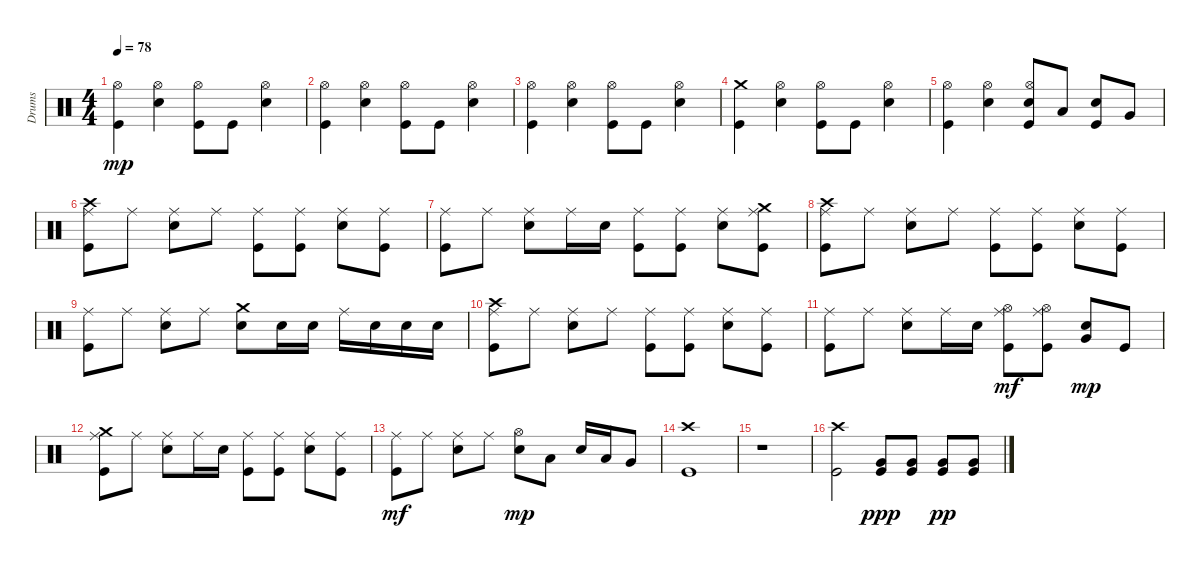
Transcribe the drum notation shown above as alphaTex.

\track ("Drums" "Drums") {instrument percussion}
\staff {score}
\articulation defaults
\ts (4 4)
\tempo 78
\clef neutral
\ks c
("Kick (hit)" "Hi-Hat (open)").4{dy mp balance 7} ("Snare (hit) 2" "Hi-Hat (open)").4{balance 7} ("Kick (hit)" "Hi-Hat (open)").8{balance 7} "Kick (hit)".8{balance 8} ("Snare (hit) 2" "Hi-Hat (open)").4{balance 7} |
("Kick (hit)" "Hi-Hat (open)").4{balance 7} ("Snare (hit) 2" "Hi-Hat (open)").4{balance 7} ("Kick (hit)" "Hi-Hat (open)").8{balance 7} "Kick (hit)".8{balance 8} ("Snare (hit) 2" "Hi-Hat (open)").4{balance 7} |
("Kick (hit)" "Hi-Hat (open)").4{balance 7} ("Snare (hit) 2" "Hi-Hat (open)").4{balance 7} ("Kick (hit)" "Hi-Hat (open)").8{balance 7} "Kick (hit)".8{balance 8} ("Snare (hit) 2" "Hi-Hat (open)").4{balance 7} |
("Kick (hit)" "Crash medium (hit)").4{volume 14 balance 8} ("Snare (hit) 2" "Hi-Hat (open)").4{volume 16 balance 8} ("Kick (hit)" "Hi-Hat (open)").8{balance 7} "Kick (hit)".8{balance 8} ("Snare (hit) 2" "Hi-Hat (open)").4{balance 8} |
("Kick (hit)" "Hi-Hat (open)").4{balance 7} ("Snare (hit) 2" "Hi-Hat (open)").4{balance 7} ("Kick (hit)" "Snare (hit) 2" "Hi-Hat (open)").8{balance 7} "Low Tom (hit)".8{balance 8} ("Kick (hit)" "Snare (hit) 2").8{balance 8} "Very Low Tom (hit)".8 |
("Kick (hit)" "Crash high (hit)" "Ride (middle)").8{volume 16 balance 7} "Ride (middle)".8 ("Snare (hit) 2" "Ride (middle)").8{balance 7} "Ride (middle)".8 ("Kick (hit)" "Ride (middle)").8{balance 7} ("Kick (hit)" "Ride (middle)").8{balance 7} ("Snare (hit) 2" "Ride (middle)").8{balance 7} ("Kick (hit)" "Ride (middle)").8{balance 7} |
("Kick (hit)" "Ride (middle)").8{balance 7} "Ride (middle)".8 ("Snare (hit) 2" "Ride (middle)").8{balance 7} "Ride (middle)".16 "Snare (hit) 2".16{balance 8} ("Kick (hit)" "Ride (middle)").8{balance 7} ("Kick (hit)" "Ride (middle)").8{balance 7} ("Snare (hit) 2" "Ride (middle)").8{balance 7} ("Kick (hit)" "Crash medium (hit)" "Ride (middle)").8{volume 16 balance 7} |
("Kick (hit)" "Crash high (hit)" "Ride (middle)").8{volume 16 balance 7} "Ride (middle)".8 ("Snare (hit) 2" "Ride (middle)").8{balance 7} "Ride (middle)".8 ("Kick (hit)" "Ride (middle)").8{balance 7} ("Kick (hit)" "Ride (middle)").8{balance 7} ("Snare (hit) 2" "Ride (middle)").8{balance 7} ("Kick (hit)" "Ride (middle)").8{balance 7} |
("Kick (hit)" "Ride (middle)").8{balance 7} "Ride (middle)".8 ("Snare (hit) 2" "Ride (middle)").8{balance 7} "Ride (middle)".8 ("Snare (hit) 2" "Crash medium (hit)").8{volume 14 balance 8} "Snare (hit) 2".16{volume 16 balance 8} "Snare (hit) 2".16 "Ride (middle)".16{balance 7} "Snare (hit) 2".16{balance 8} "Snare (hit) 2".16 "Snare (hit) 2".16 |
("Kick (hit)" "Crash high (hit)" "Ride (middle)").8{volume 16 balance 7} "Ride (middle)".8 ("Snare (hit) 2" "Ride (middle)").8{balance 7} "Ride (middle)".8 ("Kick (hit)" "Ride (middle)").8{balance 7} ("Kick (hit)" "Ride (middle)").8{balance 7} ("Snare (hit) 2" "Ride (middle)").8{balance 7} ("Kick (hit)" "Ride (middle)").8{balance 7} |
("Kick (hit)" "Ride (middle)").8{balance 7} "Ride (middle)".8 ("Snare (hit) 2" "Ride (middle)").8{balance 7} "Ride (middle)".16 "Snare (hit) 2".16{balance 8} ("Kick (hit)" "Hi-Hat (open)" "Ride (middle)").8{dy mf balance 7} ("Kick (hit)" "Hi-Hat (open)" "Ride (middle)").8{balance 7} ("Snare (hit) 2" "Very Low Tom (hit)").8{dy mp balance 8} "Kick (hit)".8{balance 8} |
("Kick (hit)" "Crash medium (hit)" "Ride (middle)").8{volume 16 balance 7} "Ride (middle)".8 ("Snare (hit) 2" "Ride (middle)").8{balance 7} "Ride (middle)".16 "Snare (hit) 2".16{balance 8} ("Kick (hit)" "Ride (middle)").8{balance 7} ("Kick (hit)" "Ride (middle)").8{balance 7} ("Snare (hit) 2" "Ride (middle)").8{balance 7} ("Kick (hit)" "Ride (middle)").8{balance 7} |
("Kick (hit)" "Ride (middle)").8{dy mf balance 7} "Ride (middle)".8 ("Snare (hit) 2" "Ride (middle)").8{balance 7} "Ride (middle)".8 ("Snare (hit) 2" "Hi-Hat (open)").8{dy mp balance 7} "Low Tom (hit)".8{balance 8} "Snare (hit) 2".16 "Low Tom (hit)".16 "Very Low Tom (hit)".8 |
("Kick (hit)" "Crash high (hit)").1{volume 12 balance 8} |
r.1 |
("Kick (hit)" "Crash high (hit)").2{volume 12 balance 8} ("Kick (hit)" "Very Low Tom (hit)").8{dy ppp volume 16 balance 8} ("Kick (hit)" "Very Low Tom (hit)").8{balance 8} ("Kick (hit)" "Very Low Tom (hit)").8{dy pp balance 8} ("Kick (hit)" "Very Low Tom (hit)").8{balance 8}
